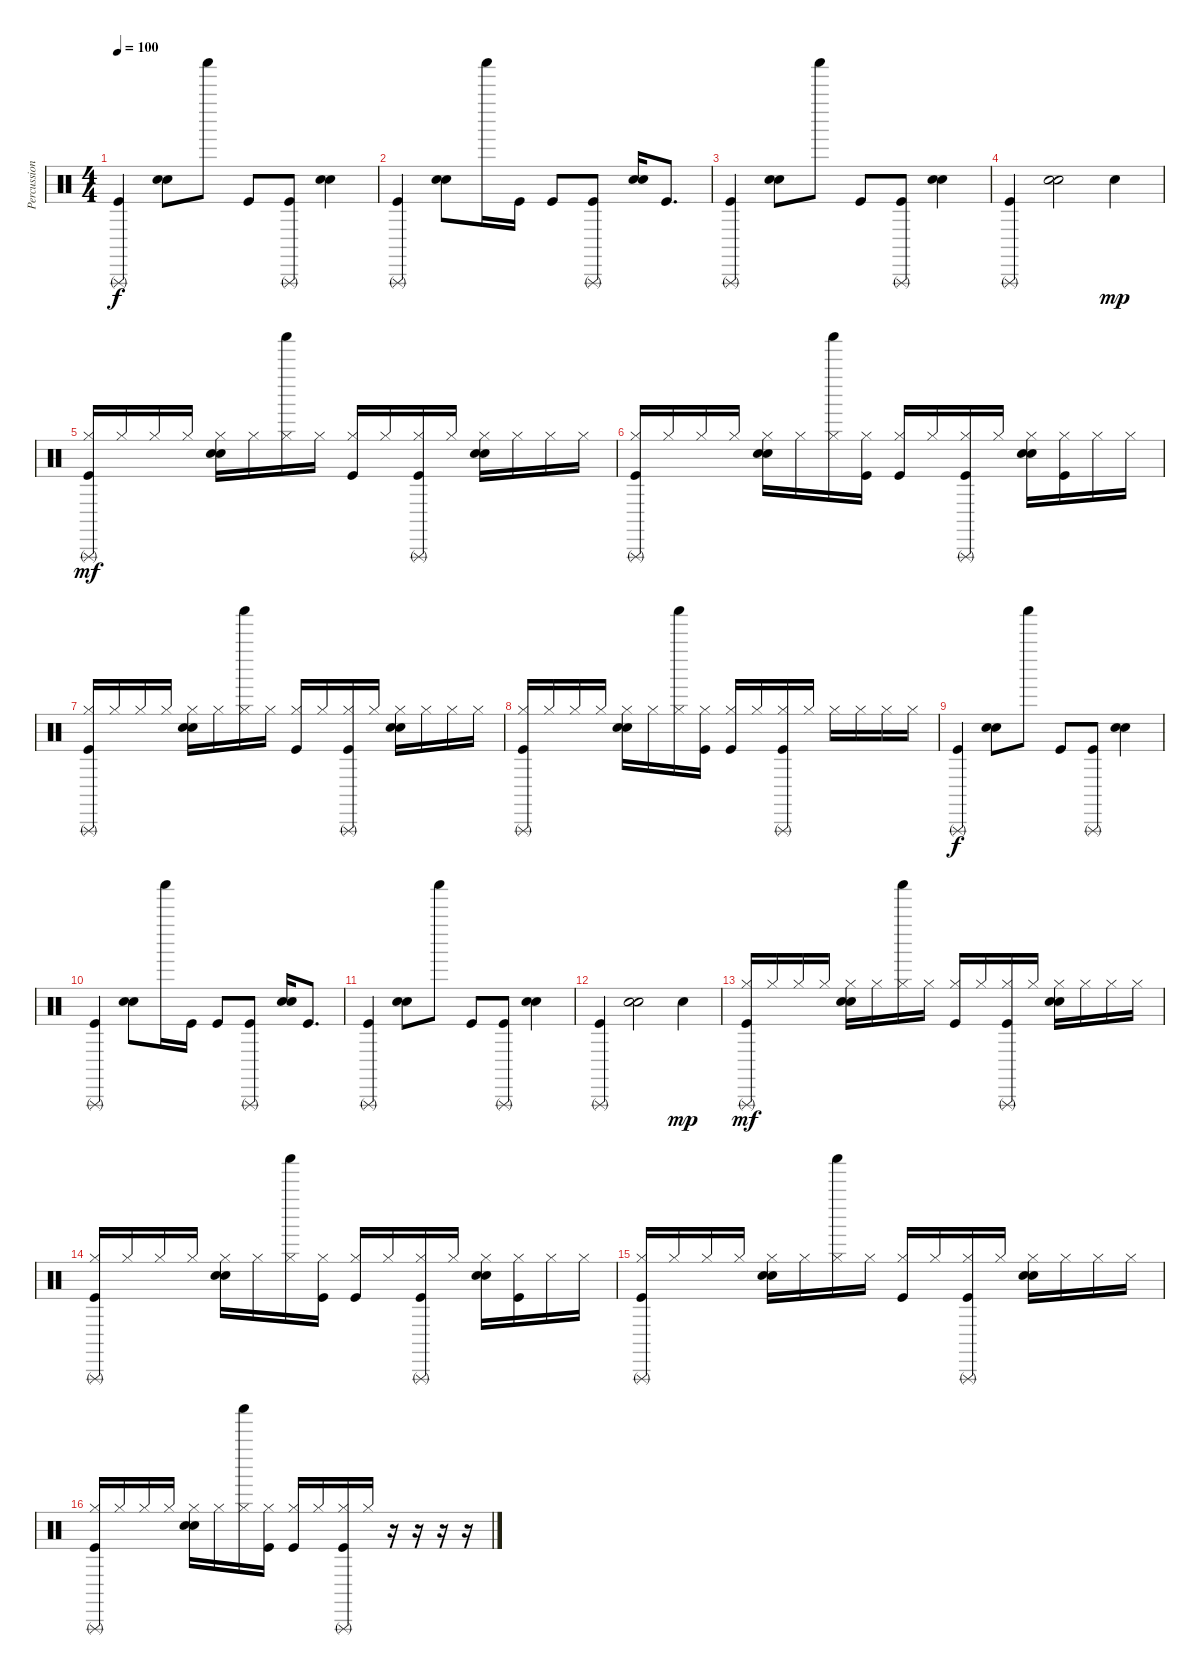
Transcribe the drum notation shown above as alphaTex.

\track ("Percussion" "Percussion") {instrument percussion}
\staff {score}
\articulation defaults
\ts (4 4)
\tempo 100
\clef neutral
\ks c
("Triangle (rnute)" "Kick (hit)").4{dy f} ("Hand Clap (hit)" "Electric Snare (hit)").8 "Shaker (hit)".8 "Kick (hit)".8 ("Triangle (rnute)" "Kick (hit)").8 ("Hand Clap (hit)" "Electric Snare (hit)").4 |
("Triangle (rnute)" "Kick (hit)").4 ("Hand Clap (hit)" "Electric Snare (hit)").8 "Shaker (hit)".16 "Kick (hit)".16 "Kick (hit)".8 ("Triangle (rnute)" "Kick (hit)").8 ("Hand Clap (hit)" "Electric Snare (hit)").16 "Kick (hit)".8{d} |
("Triangle (rnute)" "Kick (hit)").4 ("Hand Clap (hit)" "Electric Snare (hit)").8 "Shaker (hit)".8 "Kick (hit)".8 ("Triangle (rnute)" "Kick (hit)").8 ("Hand Clap (hit)" "Electric Snare (hit)").4 |
("Triangle (rnute)" "Kick (hit)").4 ("Hand Clap (hit)" "Electric Snare (hit)").2 "Electric Snare (hit)".4{dy mp} |
("Triangle (rnute)" "Hi-Hat (closed)" "Kick (hit)").16{dy mf} "Hi-Hat (closed)".16 "Hi-Hat (closed)".16 "Hi-Hat (closed)".16 ("Hi-Hat (closed)" "Hand Clap (hit)" "Electric Snare (hit)").16 "Hi-Hat (closed)".16 ("Shaker (hit)" "Hi-Hat (closed)").16 "Hi-Hat (closed)".16 ("Hi-Hat (closed)" "Kick (hit)").16 "Hi-Hat (closed)".16 ("Triangle (rnute)" "Hi-Hat (closed)" "Kick (hit)").16 "Hi-Hat (closed)".16 ("Hi-Hat (closed)" "Hand Clap (hit)" "Electric Snare (hit)").16 "Hi-Hat (closed)".16 "Hi-Hat (closed)".16 "Hi-Hat (closed)".16 |
("Triangle (rnute)" "Hi-Hat (closed)" "Kick (hit)").16 "Hi-Hat (closed)".16 "Hi-Hat (closed)".16 "Hi-Hat (closed)".16 ("Hi-Hat (closed)" "Hand Clap (hit)" "Electric Snare (hit)").16 "Hi-Hat (closed)".16 ("Shaker (hit)" "Hi-Hat (closed)").16 ("Hi-Hat (closed)" "Kick (hit)").16 ("Hi-Hat (closed)" "Kick (hit)").16 "Hi-Hat (closed)".16 ("Triangle (rnute)" "Hi-Hat (closed)" "Kick (hit)").16 "Hi-Hat (closed)".16 ("Hi-Hat (closed)" "Hand Clap (hit)" "Electric Snare (hit)").16 ("Hi-Hat (closed)" "Kick (hit)").16 "Hi-Hat (closed)".16 "Hi-Hat (closed)".16 |
("Triangle (rnute)" "Hi-Hat (closed)" "Kick (hit)").16 "Hi-Hat (closed)".16 "Hi-Hat (closed)".16 "Hi-Hat (closed)".16 ("Hi-Hat (closed)" "Hand Clap (hit)" "Electric Snare (hit)").16 "Hi-Hat (closed)".16 ("Shaker (hit)" "Hi-Hat (closed)").16 "Hi-Hat (closed)".16 ("Hi-Hat (closed)" "Kick (hit)").16 "Hi-Hat (closed)".16 ("Triangle (rnute)" "Hi-Hat (closed)" "Kick (hit)").16 "Hi-Hat (closed)".16 ("Hi-Hat (closed)" "Hand Clap (hit)" "Electric Snare (hit)").16 "Hi-Hat (closed)".16 "Hi-Hat (closed)".16 "Hi-Hat (closed)".16 |
("Triangle (rnute)" "Hi-Hat (closed)" "Kick (hit)").16 "Hi-Hat (closed)".16 "Hi-Hat (closed)".16 "Hi-Hat (closed)".16 ("Hi-Hat (closed)" "Hand Clap (hit)" "Electric Snare (hit)").16 "Hi-Hat (closed)".16 ("Shaker (hit)" "Hi-Hat (closed)").16 ("Hi-Hat (closed)" "Kick (hit)").16 ("Hi-Hat (closed)" "Kick (hit)").16 "Hi-Hat (closed)".16 ("Triangle (rnute)" "Hi-Hat (closed)" "Kick (hit)").16 "Hi-Hat (closed)".16 "Hi-Hat (closed)".16 "Hi-Hat (closed)".16 "Hi-Hat (closed)".16 "Hi-Hat (closed)".16 |
("Triangle (rnute)" "Kick (hit)").4{dy f} ("Hand Clap (hit)" "Electric Snare (hit)").8 "Shaker (hit)".8 "Kick (hit)".8 ("Triangle (rnute)" "Kick (hit)").8 ("Hand Clap (hit)" "Electric Snare (hit)").4 |
("Triangle (rnute)" "Kick (hit)").4 ("Hand Clap (hit)" "Electric Snare (hit)").8 "Shaker (hit)".16 "Kick (hit)".16 "Kick (hit)".8 ("Triangle (rnute)" "Kick (hit)").8 ("Hand Clap (hit)" "Electric Snare (hit)").16 "Kick (hit)".8{d} |
("Triangle (rnute)" "Kick (hit)").4 ("Hand Clap (hit)" "Electric Snare (hit)").8 "Shaker (hit)".8 "Kick (hit)".8 ("Triangle (rnute)" "Kick (hit)").8 ("Hand Clap (hit)" "Electric Snare (hit)").4 |
("Triangle (rnute)" "Kick (hit)").4 ("Hand Clap (hit)" "Electric Snare (hit)").2 "Electric Snare (hit)".4{dy mp} |
("Triangle (rnute)" "Hi-Hat (closed)" "Kick (hit)").16{dy mf} "Hi-Hat (closed)".16 "Hi-Hat (closed)".16 "Hi-Hat (closed)".16 ("Hi-Hat (closed)" "Hand Clap (hit)" "Electric Snare (hit)").16 "Hi-Hat (closed)".16 ("Shaker (hit)" "Hi-Hat (closed)").16 "Hi-Hat (closed)".16 ("Hi-Hat (closed)" "Kick (hit)").16 "Hi-Hat (closed)".16 ("Triangle (rnute)" "Hi-Hat (closed)" "Kick (hit)").16 "Hi-Hat (closed)".16 ("Hi-Hat (closed)" "Hand Clap (hit)" "Electric Snare (hit)").16 "Hi-Hat (closed)".16 "Hi-Hat (closed)".16 "Hi-Hat (closed)".16 |
("Triangle (rnute)" "Hi-Hat (closed)" "Kick (hit)").16 "Hi-Hat (closed)".16 "Hi-Hat (closed)".16 "Hi-Hat (closed)".16 ("Hi-Hat (closed)" "Hand Clap (hit)" "Electric Snare (hit)").16 "Hi-Hat (closed)".16 ("Shaker (hit)" "Hi-Hat (closed)").16 ("Hi-Hat (closed)" "Kick (hit)").16 ("Hi-Hat (closed)" "Kick (hit)").16 "Hi-Hat (closed)".16 ("Triangle (rnute)" "Hi-Hat (closed)" "Kick (hit)").16 "Hi-Hat (closed)".16 ("Hi-Hat (closed)" "Hand Clap (hit)" "Electric Snare (hit)").16 ("Hi-Hat (closed)" "Kick (hit)").16 "Hi-Hat (closed)".16 "Hi-Hat (closed)".16 |
("Triangle (rnute)" "Hi-Hat (closed)" "Kick (hit)").16 "Hi-Hat (closed)".16 "Hi-Hat (closed)".16 "Hi-Hat (closed)".16 ("Hi-Hat (closed)" "Hand Clap (hit)" "Electric Snare (hit)").16 "Hi-Hat (closed)".16 ("Shaker (hit)" "Hi-Hat (closed)").16 "Hi-Hat (closed)".16 ("Hi-Hat (closed)" "Kick (hit)").16 "Hi-Hat (closed)".16 ("Triangle (rnute)" "Hi-Hat (closed)" "Kick (hit)").16 "Hi-Hat (closed)".16 ("Hi-Hat (closed)" "Hand Clap (hit)" "Electric Snare (hit)").16 "Hi-Hat (closed)".16 "Hi-Hat (closed)".16 "Hi-Hat (closed)".16 |
("Triangle (rnute)" "Hi-Hat (closed)" "Kick (hit)").16 "Hi-Hat (closed)".16 "Hi-Hat (closed)".16 "Hi-Hat (closed)".16 ("Hi-Hat (closed)" "Hand Clap (hit)" "Electric Snare (hit)").16 "Hi-Hat (closed)".16 ("Shaker (hit)" "Hi-Hat (closed)").16 ("Hi-Hat (closed)" "Kick (hit)").16 ("Hi-Hat (closed)" "Kick (hit)").16 "Hi-Hat (closed)".16 ("Triangle (rnute)" "Hi-Hat (closed)" "Kick (hit)").16 "Hi-Hat (closed)".16 r.16 r.16 r.16 r.16
